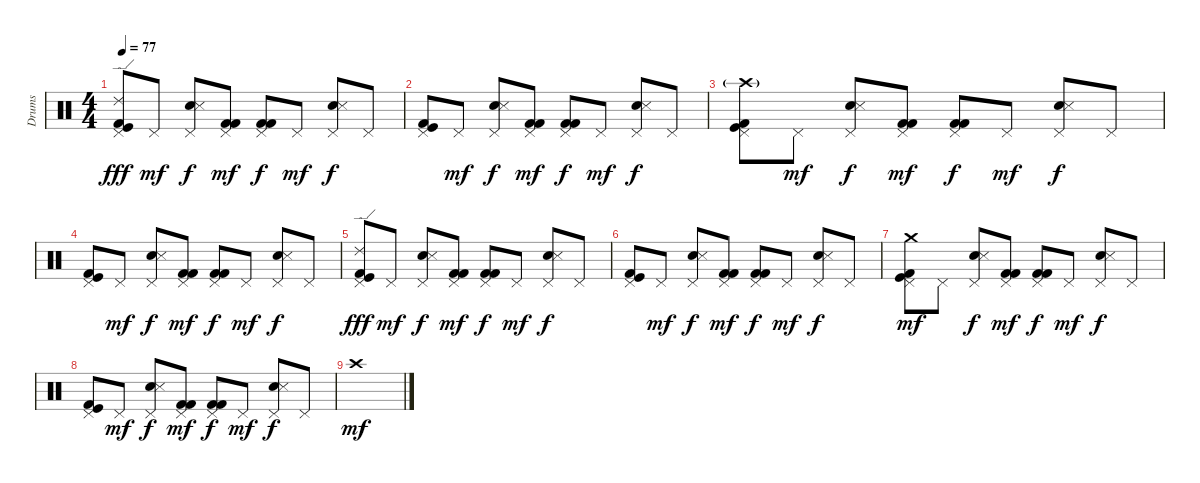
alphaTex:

\track ("Drums" "Drums") {instrument percussion}
\staff {score}
\articulation defaults
\ts (4 4)
\tempo 77
\clef neutral
\ks c
("Pedal Hi-Hat (hit)" "Ride (edge) 2" "Kick (hit) 2" "Kick (hit)").8{dy fff} "Pedal Hi-Hat (hit)".8{dy mf} ("Pedal Hi-Hat (hit)" "Snare (hit) 2" "Snare (side stick) 3").8{dy f} ("Pedal Hi-Hat (hit)" "Kick (hit) 2" "Kick (hit) 2").8{dy mf} ("Pedal Hi-Hat (hit)" "Kick (hit) 2" "Kick (hit) 2").8{dy f} "Pedal Hi-Hat (hit)".8{dy mf} ("Pedal Hi-Hat (hit)" "Snare (hit) 2" "Snare (side stick) 3").8{dy f} "Pedal Hi-Hat (hit)".8 |
("Pedal Hi-Hat (hit)" "Kick (hit) 2" "Kick (hit)").8 "Pedal Hi-Hat (hit)".8{dy mf} ("Pedal Hi-Hat (hit)" "Snare (hit) 2" "Snare (side stick) 3").8{dy f} ("Pedal Hi-Hat (hit)" "Kick (hit) 2" "Kick (hit) 2").8{dy mf} ("Pedal Hi-Hat (hit)" "Kick (hit) 2" "Kick (hit) 2").8{dy f} "Pedal Hi-Hat (hit)".8{dy mf} ("Pedal Hi-Hat (hit)" "Snare (hit) 2" "Snare (side stick) 3").8{dy f} "Pedal Hi-Hat (hit)".8 |
("Pedal Hi-Hat (hit)" "Crash high (hit)"{g} "Kick (hit) 2" "Kick (hit)").8 "Pedal Hi-Hat (hit)".8{dy mf} ("Pedal Hi-Hat (hit)" "Snare (hit) 2" "Snare (side stick) 3").8{dy f} ("Pedal Hi-Hat (hit)" "Kick (hit) 2" "Kick (hit) 2").8{dy mf} ("Pedal Hi-Hat (hit)" "Kick (hit) 2" "Kick (hit) 2").8{dy f} "Pedal Hi-Hat (hit)".8{dy mf} ("Pedal Hi-Hat (hit)" "Snare (hit) 2" "Snare (side stick) 3").8{dy f} "Pedal Hi-Hat (hit)".8 |
("Pedal Hi-Hat (hit)" "Kick (hit) 2" "Kick (hit)").8 "Pedal Hi-Hat (hit)".8{dy mf} ("Pedal Hi-Hat (hit)" "Snare (hit) 2" "Snare (side stick) 3").8{dy f} ("Pedal Hi-Hat (hit)" "Kick (hit) 2" "Kick (hit) 2").8{dy mf} ("Pedal Hi-Hat (hit)" "Kick (hit) 2" "Kick (hit) 2").8{dy f} "Pedal Hi-Hat (hit)".8{dy mf} ("Pedal Hi-Hat (hit)" "Snare (hit) 2" "Snare (side stick) 3").8{dy f} "Pedal Hi-Hat (hit)".8 |
("Pedal Hi-Hat (hit)" "Ride (edge) 2" "Kick (hit) 2" "Kick (hit)").8{dy fff} "Pedal Hi-Hat (hit)".8{dy mf} ("Pedal Hi-Hat (hit)" "Snare (hit) 2" "Snare (side stick) 3").8{dy f} ("Pedal Hi-Hat (hit)" "Kick (hit) 2" "Kick (hit) 2").8{dy mf} ("Pedal Hi-Hat (hit)" "Kick (hit) 2" "Kick (hit) 2").8{dy f} "Pedal Hi-Hat (hit)".8{dy mf} ("Pedal Hi-Hat (hit)" "Snare (hit) 2" "Snare (side stick) 3").8{dy f} "Pedal Hi-Hat (hit)".8 |
("Pedal Hi-Hat (hit)" "Kick (hit) 2" "Kick (hit)").8 "Pedal Hi-Hat (hit)".8{dy mf} ("Pedal Hi-Hat (hit)" "Snare (hit) 2" "Snare (side stick) 3").8{dy f} ("Pedal Hi-Hat (hit)" "Kick (hit) 2" "Kick (hit) 2").8{dy mf} ("Pedal Hi-Hat (hit)" "Kick (hit) 2" "Kick (hit) 2").8{dy f} "Pedal Hi-Hat (hit)".8{dy mf} ("Pedal Hi-Hat (hit)" "Snare (hit) 2" "Snare (side stick) 3").8{dy f} "Pedal Hi-Hat (hit)".8 |
("Pedal Hi-Hat (hit)" "Crash medium (hit)" "Kick (hit) 2" "Kick (hit)").8{dy mf} "Pedal Hi-Hat (hit)".8 ("Pedal Hi-Hat (hit)" "Snare (hit) 2" "Snare (side stick) 3").8{dy f} ("Pedal Hi-Hat (hit)" "Kick (hit) 2" "Kick (hit) 2").8{dy mf} ("Pedal Hi-Hat (hit)" "Kick (hit) 2" "Kick (hit) 2").8{dy f} "Pedal Hi-Hat (hit)".8{dy mf} ("Pedal Hi-Hat (hit)" "Snare (hit) 2" "Snare (side stick) 3").8{dy f} "Pedal Hi-Hat (hit)".8 |
("Pedal Hi-Hat (hit)" "Kick (hit) 2" "Kick (hit)").8 "Pedal Hi-Hat (hit)".8{dy mf} ("Pedal Hi-Hat (hit)" "Snare (hit) 2" "Snare (side stick) 3").8{dy f} ("Pedal Hi-Hat (hit)" "Kick (hit) 2" "Kick (hit) 2").8{dy mf} ("Pedal Hi-Hat (hit)" "Kick (hit) 2" "Kick (hit) 2").8{dy f} "Pedal Hi-Hat (hit)".8{dy mf} ("Pedal Hi-Hat (hit)" "Snare (hit) 2" "Snare (side stick) 3").8{dy f} "Pedal Hi-Hat (hit)".8 |
"Crash high (hit)".1{dy mf}
